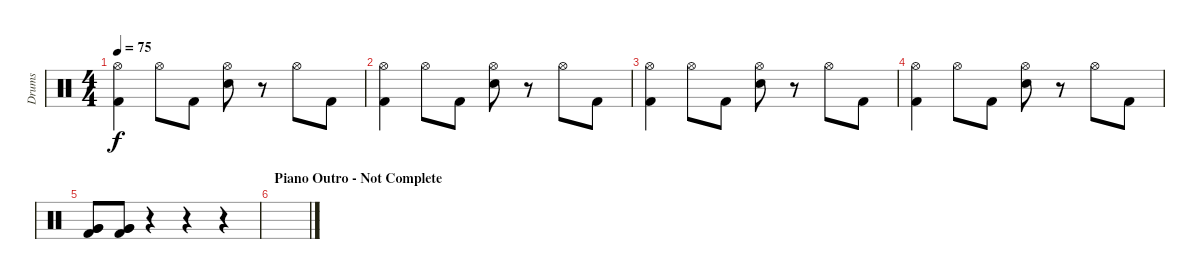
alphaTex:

\track ("Drums" "Drums") {instrument percussion}
\staff {score}
\articulation defaults
\ts (4 4)
\tempo 75
\clef neutral
\ks c
("Hi-Hat (open)" "Kick (hit) 2").4{dy f} "Hi-Hat (open)".8 "Kick (hit) 2".8 ("Hi-Hat (open)" "Snare (hit) 2").8 r.8 "Hi-Hat (open)".8 "Kick (hit) 2".8 |
("Hi-Hat (open)" "Kick (hit) 2").4 "Hi-Hat (open)".8 "Kick (hit) 2".8 ("Hi-Hat (open)" "Snare (hit) 2").8 r.8 "Hi-Hat (open)".8 "Kick (hit) 2".8 |
("Hi-Hat (open)" "Kick (hit) 2").4 "Hi-Hat (open)".8 "Kick (hit) 2".8 ("Hi-Hat (open)" "Snare (hit) 2").8 r.8 "Hi-Hat (open)".8 "Kick (hit) 2".8 |
("Hi-Hat (open)" "Kick (hit) 2").4 "Hi-Hat (open)".8 "Kick (hit) 2".8 ("Hi-Hat (open)" "Snare (hit) 2").8 r.8 "Hi-Hat (open)".8 "Kick (hit) 2".8 |
("Very Low Tom (hit)" "Very Low Tom (hit)" "Kick (hit) 2").8 ("Very Low Tom (hit)" "Very Low Tom (hit)" "Kick (hit) 2").8 r.4 r.4 r.4 |
\section ("" "Piano Outro - Not Complete")
